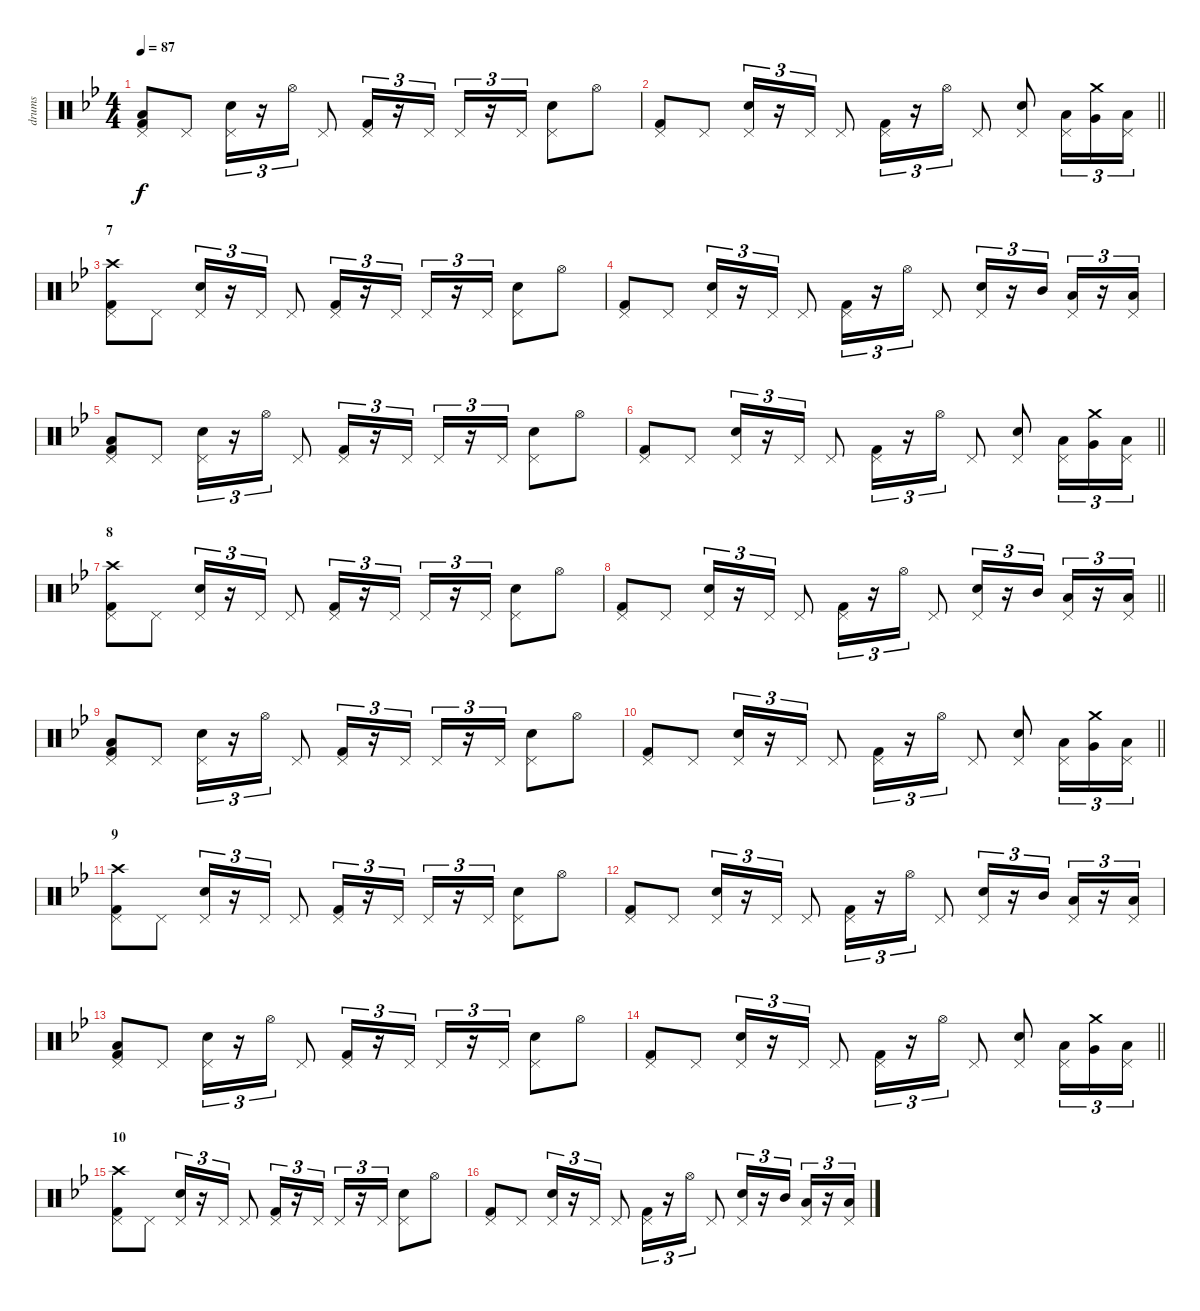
\track ("drums" "drums") {instrument percussion}
\staff {score}
\articulation defaults
\ts (4 4)
\tempo 87
\clef neutral
\ks gminor
("Pedal Hi-Hat (hit)" "Low Floor Tom (hit)" "Kick (hit) 2").8{dy f} "Pedal Hi-Hat (hit)".8 ("Pedal Hi-Hat (hit)" "Electric Snare (hit)").16{tu (3 2)} r.16{tu (3 2)} "Hi-Hat (open)".16{tu (3 2)} "Pedal Hi-Hat (hit)".8 ("Pedal Hi-Hat (hit)" "Kick (hit) 2").16{tu (3 2)} r.16{tu (3 2)} "Pedal Hi-Hat (hit)".16{tu (3 2)} "Pedal Hi-Hat (hit)".16{tu (3 2)} r.16{tu (3 2)} "Pedal Hi-Hat (hit)".16{tu (3 2)} ("Pedal Hi-Hat (hit)" "Electric Snare (hit)").8 "Hi-Hat (open)".8 |
\barLineRight lightlight
("Pedal Hi-Hat (hit)" "Kick (hit) 2").8 "Pedal Hi-Hat (hit)".8 ("Pedal Hi-Hat (hit)" "Electric Snare (hit)").16{tu (3 2)} r.16{tu (3 2)} "Pedal Hi-Hat (hit)".16{tu (3 2)} "Pedal Hi-Hat (hit)".8 ("Pedal Hi-Hat (hit)" "Kick (hit) 2").16{tu (3 2)} r.16{tu (3 2)} "Hi-Hat (open)".16{tu (3 2)} "Pedal Hi-Hat (hit)".8 ("Pedal Hi-Hat (hit)" "Electric Snare (hit)").8 ("Pedal Hi-Hat (hit)" "Low Tom (hit)").16{tu (3 2)} ("Crash medium (hit)" "Very Low Tom (hit)").16{tu (3 2)} ("Pedal Hi-Hat (hit)" "Low Floor Tom (hit)").16{tu (3 2)} |
\section ("" "7")
("Crash high (hit)" "Pedal Hi-Hat (hit)" "Kick (hit) 2").8 "Pedal Hi-Hat (hit)".8 ("Pedal Hi-Hat (hit)" "Electric Snare (hit)").16{tu (3 2)} r.16{tu (3 2)} "Pedal Hi-Hat (hit)".16{tu (3 2)} "Pedal Hi-Hat (hit)".8 ("Pedal Hi-Hat (hit)" "Kick (hit) 2").16{tu (3 2)} r.16{tu (3 2)} "Pedal Hi-Hat (hit)".16{tu (3 2)} "Pedal Hi-Hat (hit)".16{tu (3 2)} r.16{tu (3 2)} "Pedal Hi-Hat (hit)".16{tu (3 2)} ("Pedal Hi-Hat (hit)" "Electric Snare (hit)").8 "Hi-Hat (open)".8 |
("Pedal Hi-Hat (hit)" "Kick (hit) 2").8 "Pedal Hi-Hat (hit)".8 ("Pedal Hi-Hat (hit)" "Electric Snare (hit)").16{tu (3 2)} r.16{tu (3 2)} "Pedal Hi-Hat (hit)".16{tu (3 2)} "Pedal Hi-Hat (hit)".8 ("Pedal Hi-Hat (hit)" "Kick (hit) 2").16{tu (3 2)} r.16{tu (3 2)} "Hi-Hat (open)".16{tu (3 2)} "Pedal Hi-Hat (hit)".8 ("Pedal Hi-Hat (hit)" "Electric Snare (hit)").16{tu (3 2)} r.16{tu (3 2)} "Mid Tom (hit)".16{tu (3 2)} ("Pedal Hi-Hat (hit)" "Low Tom (hit)").16{tu (3 2)} r.16{tu (3 2)} ("Pedal Hi-Hat (hit)" "Low Floor Tom (hit)").16{tu (3 2)} |
("Pedal Hi-Hat (hit)" "Low Floor Tom (hit)" "Kick (hit) 2").8 "Pedal Hi-Hat (hit)".8 ("Pedal Hi-Hat (hit)" "Electric Snare (hit)").16{tu (3 2)} r.16{tu (3 2)} "Hi-Hat (open)".16{tu (3 2)} "Pedal Hi-Hat (hit)".8 ("Pedal Hi-Hat (hit)" "Kick (hit) 2").16{tu (3 2)} r.16{tu (3 2)} "Pedal Hi-Hat (hit)".16{tu (3 2)} "Pedal Hi-Hat (hit)".16{tu (3 2)} r.16{tu (3 2)} "Pedal Hi-Hat (hit)".16{tu (3 2)} ("Pedal Hi-Hat (hit)" "Electric Snare (hit)").8 "Hi-Hat (open)".8 |
\barLineRight lightlight
("Pedal Hi-Hat (hit)" "Kick (hit) 2").8 "Pedal Hi-Hat (hit)".8 ("Pedal Hi-Hat (hit)" "Electric Snare (hit)").16{tu (3 2)} r.16{tu (3 2)} "Pedal Hi-Hat (hit)".16{tu (3 2)} "Pedal Hi-Hat (hit)".8 ("Pedal Hi-Hat (hit)" "Kick (hit) 2").16{tu (3 2)} r.16{tu (3 2)} "Hi-Hat (open)".16{tu (3 2)} "Pedal Hi-Hat (hit)".8 ("Pedal Hi-Hat (hit)" "Electric Snare (hit)").8 ("Pedal Hi-Hat (hit)" "Low Tom (hit)").16{tu (3 2)} ("Crash medium (hit)" "Very Low Tom (hit)").16{tu (3 2)} ("Pedal Hi-Hat (hit)" "Low Floor Tom (hit)").16{tu (3 2)} |
\section ("" "8")
("Crash high (hit)" "Pedal Hi-Hat (hit)" "Kick (hit) 2").8 "Pedal Hi-Hat (hit)".8 ("Pedal Hi-Hat (hit)" "Electric Snare (hit)").16{tu (3 2)} r.16{tu (3 2)} "Pedal Hi-Hat (hit)".16{tu (3 2)} "Pedal Hi-Hat (hit)".8 ("Pedal Hi-Hat (hit)" "Kick (hit) 2").16{tu (3 2)} r.16{tu (3 2)} "Pedal Hi-Hat (hit)".16{tu (3 2)} "Pedal Hi-Hat (hit)".16{tu (3 2)} r.16{tu (3 2)} "Pedal Hi-Hat (hit)".16{tu (3 2)} ("Pedal Hi-Hat (hit)" "Electric Snare (hit)").8 "Hi-Hat (open)".8 |
\barLineRight lightlight
("Pedal Hi-Hat (hit)" "Kick (hit) 2").8 "Pedal Hi-Hat (hit)".8 ("Pedal Hi-Hat (hit)" "Electric Snare (hit)").16{tu (3 2)} r.16{tu (3 2)} "Pedal Hi-Hat (hit)".16{tu (3 2)} "Pedal Hi-Hat (hit)".8 ("Pedal Hi-Hat (hit)" "Kick (hit) 2").16{tu (3 2)} r.16{tu (3 2)} "Hi-Hat (open)".16{tu (3 2)} "Pedal Hi-Hat (hit)".8 ("Pedal Hi-Hat (hit)" "Electric Snare (hit)").16{tu (3 2)} r.16{tu (3 2)} "Mid Tom (hit)".16{tu (3 2)} ("Pedal Hi-Hat (hit)" "Low Tom (hit)").16{tu (3 2)} r.16{tu (3 2)} ("Pedal Hi-Hat (hit)" "Low Floor Tom (hit)").16{tu (3 2)} |
("Pedal Hi-Hat (hit)" "Low Floor Tom (hit)" "Kick (hit) 2").8 "Pedal Hi-Hat (hit)".8 ("Pedal Hi-Hat (hit)" "Electric Snare (hit)").16{tu (3 2)} r.16{tu (3 2)} "Hi-Hat (open)".16{tu (3 2)} "Pedal Hi-Hat (hit)".8 ("Pedal Hi-Hat (hit)" "Kick (hit) 2").16{tu (3 2)} r.16{tu (3 2)} "Pedal Hi-Hat (hit)".16{tu (3 2)} "Pedal Hi-Hat (hit)".16{tu (3 2)} r.16{tu (3 2)} "Pedal Hi-Hat (hit)".16{tu (3 2)} ("Pedal Hi-Hat (hit)" "Electric Snare (hit)").8 "Hi-Hat (open)".8 |
\barLineRight lightlight
("Pedal Hi-Hat (hit)" "Kick (hit) 2").8 "Pedal Hi-Hat (hit)".8 ("Pedal Hi-Hat (hit)" "Electric Snare (hit)").16{tu (3 2)} r.16{tu (3 2)} "Pedal Hi-Hat (hit)".16{tu (3 2)} "Pedal Hi-Hat (hit)".8 ("Pedal Hi-Hat (hit)" "Kick (hit) 2").16{tu (3 2)} r.16{tu (3 2)} "Hi-Hat (open)".16{tu (3 2)} "Pedal Hi-Hat (hit)".8 ("Pedal Hi-Hat (hit)" "Electric Snare (hit)").8 ("Pedal Hi-Hat (hit)" "Low Tom (hit)").16{tu (3 2)} ("Crash medium (hit)" "Very Low Tom (hit)").16{tu (3 2)} ("Pedal Hi-Hat (hit)" "Low Floor Tom (hit)").16{tu (3 2)} |
\section ("" "9")
("Crash high (hit)" "Pedal Hi-Hat (hit)" "Kick (hit) 2").8 "Pedal Hi-Hat (hit)".8 ("Pedal Hi-Hat (hit)" "Electric Snare (hit)").16{tu (3 2)} r.16{tu (3 2)} "Pedal Hi-Hat (hit)".16{tu (3 2)} "Pedal Hi-Hat (hit)".8 ("Pedal Hi-Hat (hit)" "Kick (hit) 2").16{tu (3 2)} r.16{tu (3 2)} "Pedal Hi-Hat (hit)".16{tu (3 2)} "Pedal Hi-Hat (hit)".16{tu (3 2)} r.16{tu (3 2)} "Pedal Hi-Hat (hit)".16{tu (3 2)} ("Pedal Hi-Hat (hit)" "Electric Snare (hit)").8 "Hi-Hat (open)".8 |
("Pedal Hi-Hat (hit)" "Kick (hit) 2").8 "Pedal Hi-Hat (hit)".8 ("Pedal Hi-Hat (hit)" "Electric Snare (hit)").16{tu (3 2)} r.16{tu (3 2)} "Pedal Hi-Hat (hit)".16{tu (3 2)} "Pedal Hi-Hat (hit)".8 ("Pedal Hi-Hat (hit)" "Kick (hit) 2").16{tu (3 2)} r.16{tu (3 2)} "Hi-Hat (open)".16{tu (3 2)} "Pedal Hi-Hat (hit)".8 ("Pedal Hi-Hat (hit)" "Electric Snare (hit)").16{tu (3 2)} r.16{tu (3 2)} "Mid Tom (hit)".16{tu (3 2)} ("Pedal Hi-Hat (hit)" "Low Tom (hit)").16{tu (3 2)} r.16{tu (3 2)} ("Pedal Hi-Hat (hit)" "Low Floor Tom (hit)").16{tu (3 2)} |
("Pedal Hi-Hat (hit)" "Low Floor Tom (hit)" "Kick (hit) 2").8 "Pedal Hi-Hat (hit)".8 ("Pedal Hi-Hat (hit)" "Electric Snare (hit)").16{tu (3 2)} r.16{tu (3 2)} "Hi-Hat (open)".16{tu (3 2)} "Pedal Hi-Hat (hit)".8 ("Pedal Hi-Hat (hit)" "Kick (hit) 2").16{tu (3 2)} r.16{tu (3 2)} "Pedal Hi-Hat (hit)".16{tu (3 2)} "Pedal Hi-Hat (hit)".16{tu (3 2)} r.16{tu (3 2)} "Pedal Hi-Hat (hit)".16{tu (3 2)} ("Pedal Hi-Hat (hit)" "Electric Snare (hit)").8 "Hi-Hat (open)".8 |
\barLineRight lightlight
("Pedal Hi-Hat (hit)" "Kick (hit) 2").8 "Pedal Hi-Hat (hit)".8 ("Pedal Hi-Hat (hit)" "Electric Snare (hit)").16{tu (3 2)} r.16{tu (3 2)} "Pedal Hi-Hat (hit)".16{tu (3 2)} "Pedal Hi-Hat (hit)".8 ("Pedal Hi-Hat (hit)" "Kick (hit) 2").16{tu (3 2)} r.16{tu (3 2)} "Hi-Hat (open)".16{tu (3 2)} "Pedal Hi-Hat (hit)".8 ("Pedal Hi-Hat (hit)" "Electric Snare (hit)").8 ("Pedal Hi-Hat (hit)" "Low Tom (hit)").16{tu (3 2)} ("Crash medium (hit)" "Very Low Tom (hit)").16{tu (3 2)} ("Pedal Hi-Hat (hit)" "Low Floor Tom (hit)").16{tu (3 2)} |
\section ("" "10")
("Crash high (hit)" "Pedal Hi-Hat (hit)" "Kick (hit) 2").8 "Pedal Hi-Hat (hit)".8 ("Pedal Hi-Hat (hit)" "Electric Snare (hit)").16{tu (3 2)} r.16{tu (3 2)} "Pedal Hi-Hat (hit)".16{tu (3 2)} "Pedal Hi-Hat (hit)".8 ("Pedal Hi-Hat (hit)" "Kick (hit) 2").16{tu (3 2)} r.16{tu (3 2)} "Pedal Hi-Hat (hit)".16{tu (3 2)} "Pedal Hi-Hat (hit)".16{tu (3 2)} r.16{tu (3 2)} "Pedal Hi-Hat (hit)".16{tu (3 2)} ("Pedal Hi-Hat (hit)" "Electric Snare (hit)").8 "Hi-Hat (open)".8 |
("Pedal Hi-Hat (hit)" "Kick (hit) 2").8 "Pedal Hi-Hat (hit)".8 ("Pedal Hi-Hat (hit)" "Electric Snare (hit)").16{tu (3 2)} r.16{tu (3 2)} "Pedal Hi-Hat (hit)".16{tu (3 2)} "Pedal Hi-Hat (hit)".8 ("Pedal Hi-Hat (hit)" "Kick (hit) 2").16{tu (3 2)} r.16{tu (3 2)} "Hi-Hat (open)".16{tu (3 2)} "Pedal Hi-Hat (hit)".8 ("Pedal Hi-Hat (hit)" "Electric Snare (hit)").16{tu (3 2)} r.16{tu (3 2)} "Mid Tom (hit)".16{tu (3 2)} ("Pedal Hi-Hat (hit)" "Low Tom (hit)").16{tu (3 2)} r.16{tu (3 2)} ("Pedal Hi-Hat (hit)" "Low Floor Tom (hit)").16{tu (3 2)}
